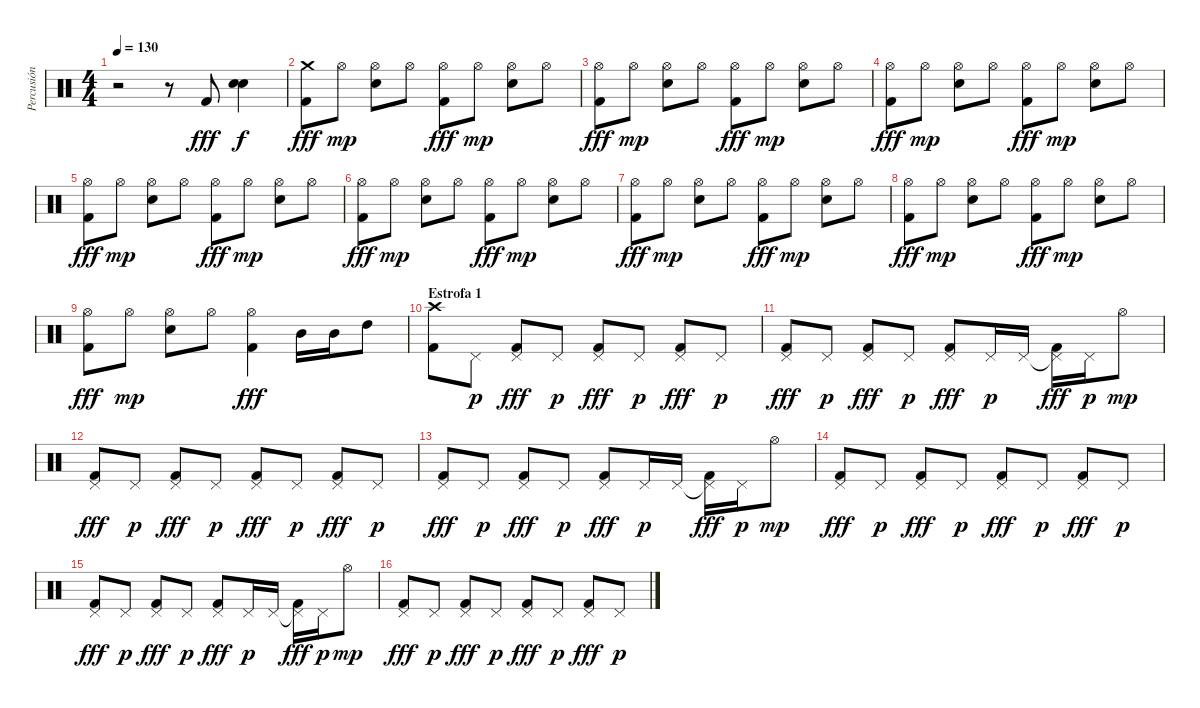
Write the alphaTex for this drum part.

\track ("Percusión" "Percusión") {instrument percussion}
\staff {score}
\articulation defaults
\ts (4 4)
\tempo 130
\clef neutral
\ks c
r.2{dy fff} r.8 "Kick (hit) 2".8 ("Snare (hit) 2" "Snare (hit) 2").4{bd 240 dy f} |
("Crash medium (hit)" "Kick (hit) 2").8{dy fff} "Hi-Hat (open)".8{dy mp} ("Hi-Hat (open)" "Snare (hit) 2").8 "Hi-Hat (open)".8 ("Hi-Hat (open)" "Kick (hit) 2").8{dy fff} "Hi-Hat (open)".8{dy mp} ("Hi-Hat (open)" "Snare (hit) 2").8 "Hi-Hat (open)".8 |
("Hi-Hat (open)" "Kick (hit) 2").8{dy fff} "Hi-Hat (open)".8{dy mp} ("Hi-Hat (open)" "Snare (hit) 2").8 "Hi-Hat (open)".8 ("Hi-Hat (open)" "Kick (hit) 2").8{dy fff} "Hi-Hat (open)".8{dy mp} ("Hi-Hat (open)" "Snare (hit) 2").8 "Hi-Hat (open)".8 |
("Hi-Hat (open)" "Kick (hit) 2").8{dy fff} "Hi-Hat (open)".8{dy mp} ("Hi-Hat (open)" "Snare (hit) 2").8 "Hi-Hat (open)".8 ("Hi-Hat (open)" "Kick (hit) 2").8{dy fff} "Hi-Hat (open)".8{dy mp} ("Hi-Hat (open)" "Snare (hit) 2").8 "Hi-Hat (open)".8 |
("Hi-Hat (open)" "Kick (hit) 2").8{dy fff} "Hi-Hat (open)".8{dy mp} ("Hi-Hat (open)" "Snare (hit) 2").8 "Hi-Hat (open)".8 ("Hi-Hat (open)" "Kick (hit) 2").8{dy fff} "Hi-Hat (open)".8{dy mp} ("Hi-Hat (open)" "Snare (hit) 2").8 "Hi-Hat (open)".8 |
("Hi-Hat (open)" "Kick (hit) 2").8{dy fff} "Hi-Hat (open)".8{dy mp} ("Hi-Hat (open)" "Snare (hit) 2").8 "Hi-Hat (open)".8 ("Hi-Hat (open)" "Kick (hit) 2").8{dy fff} "Hi-Hat (open)".8{dy mp} ("Hi-Hat (open)" "Snare (hit) 2").8 "Hi-Hat (open)".8 |
("Hi-Hat (open)" "Kick (hit) 2").8{dy fff} "Hi-Hat (open)".8{dy mp} ("Hi-Hat (open)" "Snare (hit) 2").8 "Hi-Hat (open)".8 ("Hi-Hat (open)" "Kick (hit) 2").8{dy fff} "Hi-Hat (open)".8{dy mp} ("Hi-Hat (open)" "Snare (hit) 2").8 "Hi-Hat (open)".8 |
("Hi-Hat (open)" "Kick (hit) 2").8{dy fff} "Hi-Hat (open)".8{dy mp} ("Hi-Hat (open)" "Snare (hit) 2").8 "Hi-Hat (open)".8 ("Hi-Hat (open)" "Kick (hit) 2").8{dy fff} "Hi-Hat (open)".8{dy mp} ("Hi-Hat (open)" "Snare (hit) 2").8 "Hi-Hat (open)".8 |
("Hi-Hat (open)" "Kick (hit) 2").8{dy fff} "Hi-Hat (open)".8{dy mp} ("Hi-Hat (open)" "Snare (hit) 2").8 "Hi-Hat (open)".8 ("Hi-Hat (open)" "Kick (hit) 2").4{dy fff} "Mid Tom (hit)".16 "Mid Tom (hit)".16 "High Tom (hit)".8 |
\section ("" "Estrofa 1")
("Crash high (hit)" "Kick (hit) 2").8 "Pedal Hi-Hat (hit)".8{dy p} ("Pedal Hi-Hat (hit)" "Kick (hit) 2").8{dy fff} "Pedal Hi-Hat (hit)".8{dy p} ("Pedal Hi-Hat (hit)" "Kick (hit) 2").8{dy fff} "Pedal Hi-Hat (hit)".8{dy p} ("Pedal Hi-Hat (hit)" "Kick (hit) 2").8{dy fff} "Pedal Hi-Hat (hit)".8{dy p} |
("Pedal Hi-Hat (hit)" "Kick (hit) 2").8{dy fff} "Pedal Hi-Hat (hit)".8{dy p} ("Pedal Hi-Hat (hit)" "Kick (hit) 2").8{dy fff} "Pedal Hi-Hat (hit)".8{dy p} ("Pedal Hi-Hat (hit)" "Kick (hit) 2").8{dy fff} "Pedal Hi-Hat (hit)".16{dy p} "Pedal Hi-Hat (hit)".16 ("Pedal Hi-Hat (hit)"{t} "Kick (hit) 2").16{dy fff} "Pedal Hi-Hat (hit)".16{dy p} "Hi-Hat (open)".8{dy mp} |
("Pedal Hi-Hat (hit)" "Kick (hit) 2").8{dy fff} "Pedal Hi-Hat (hit)".8{dy p} ("Pedal Hi-Hat (hit)" "Kick (hit) 2").8{dy fff} "Pedal Hi-Hat (hit)".8{dy p} ("Pedal Hi-Hat (hit)" "Kick (hit) 2").8{dy fff} "Pedal Hi-Hat (hit)".8{dy p} ("Pedal Hi-Hat (hit)" "Kick (hit) 2").8{dy fff} "Pedal Hi-Hat (hit)".8{dy p} |
("Pedal Hi-Hat (hit)" "Kick (hit) 2").8{dy fff} "Pedal Hi-Hat (hit)".8{dy p} ("Pedal Hi-Hat (hit)" "Kick (hit) 2").8{dy fff} "Pedal Hi-Hat (hit)".8{dy p} ("Pedal Hi-Hat (hit)" "Kick (hit) 2").8{dy fff} "Pedal Hi-Hat (hit)".16{dy p} "Pedal Hi-Hat (hit)".16 ("Pedal Hi-Hat (hit)"{t} "Kick (hit) 2").16{dy fff} "Pedal Hi-Hat (hit)".16{dy p} "Hi-Hat (open)".8{dy mp} |
("Pedal Hi-Hat (hit)" "Kick (hit) 2").8{dy fff} "Pedal Hi-Hat (hit)".8{dy p} ("Pedal Hi-Hat (hit)" "Kick (hit) 2").8{dy fff} "Pedal Hi-Hat (hit)".8{dy p} ("Pedal Hi-Hat (hit)" "Kick (hit) 2").8{dy fff} "Pedal Hi-Hat (hit)".8{dy p} ("Pedal Hi-Hat (hit)" "Kick (hit) 2").8{dy fff} "Pedal Hi-Hat (hit)".8{dy p} |
("Pedal Hi-Hat (hit)" "Kick (hit) 2").8{dy fff} "Pedal Hi-Hat (hit)".8{dy p} ("Pedal Hi-Hat (hit)" "Kick (hit) 2").8{dy fff} "Pedal Hi-Hat (hit)".8{dy p} ("Pedal Hi-Hat (hit)" "Kick (hit) 2").8{dy fff} "Pedal Hi-Hat (hit)".16{dy p} "Pedal Hi-Hat (hit)".16 ("Pedal Hi-Hat (hit)"{t} "Kick (hit) 2").16{dy fff} "Pedal Hi-Hat (hit)".16{dy p} "Hi-Hat (open)".8{dy mp} |
("Pedal Hi-Hat (hit)" "Kick (hit) 2").8{dy fff} "Pedal Hi-Hat (hit)".8{dy p} ("Pedal Hi-Hat (hit)" "Kick (hit) 2").8{dy fff} "Pedal Hi-Hat (hit)".8{dy p} ("Pedal Hi-Hat (hit)" "Kick (hit) 2").8{dy fff} "Pedal Hi-Hat (hit)".8{dy p} ("Pedal Hi-Hat (hit)" "Kick (hit) 2").8{dy fff} "Pedal Hi-Hat (hit)".8{dy p}
